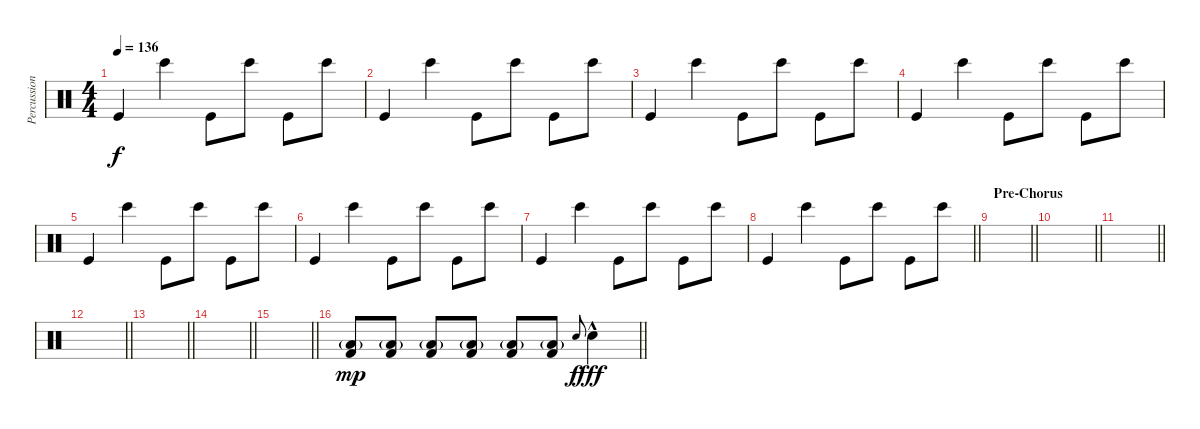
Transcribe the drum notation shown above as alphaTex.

\track ("Percussion" "Percussion") {instrument percussion}
\staff {score}
\articulation defaults
\ts (4 4)
\tempo 136
\clef neutral
\ks c "Kick (hit)".4{dy f} "Bongo High (hit)".4 "Kick (hit)".8 "Bongo High (hit)".8 "Kick (hit)".8 "Bongo High (hit)".8
|
"Kick (hit)".4 "Bongo High (hit)".4 "Kick (hit)".8 "Bongo High (hit)".8 "Kick (hit)".8 "Bongo High (hit)".8 |
"Kick (hit)".4 "Bongo High (hit)".4 "Kick (hit)".8 "Bongo High (hit)".8 "Kick (hit)".8 "Bongo High (hit)".8 |
"Kick (hit)".4 "Bongo High (hit)".4 "Kick (hit)".8 "Bongo High (hit)".8 "Kick (hit)".8 "Bongo High (hit)".8 |
"Kick (hit)".4 "Bongo High (hit)".4 "Kick (hit)".8 "Bongo High (hit)".8 "Kick (hit)".8 "Bongo High (hit)".8 |
"Kick (hit)".4 "Bongo High (hit)".4 "Kick (hit)".8 "Bongo High (hit)".8 "Kick (hit)".8 "Bongo High (hit)".8 |
"Kick (hit)".4 "Bongo High (hit)".4 "Kick (hit)".8 "Bongo High (hit)".8 "Kick (hit)".8 "Bongo High (hit)".8 |
\barLineRight lightlight "Kick (hit)".4 "Bongo High (hit)".4 "Kick (hit)".8 "Bongo High (hit)".8 "Kick (hit)".8 "Bongo High (hit)".8
|
\section ("" "Pre-Chorus")
\barLineRight lightlight
|
\barLineRight lightlight
|
\barLineRight lightlight
|
\barLineRight lightlight
|
\barLineRight lightlight
|
\barLineRight lightlight
|
\barLineRight lightlight
|
\barLineRight lightlight
("Kick (hit) 2" "Low Floor Tom (hit)"{g}).8{dy mp volume 13} ("Kick (hit) 2" "Low Floor Tom (hit)"{g}).8 ("Kick (hit) 2" "Low Floor Tom (hit)"{g}).8 ("Kick (hit) 2" "Low Floor Tom (hit)"{g}).8 ("Kick (hit) 2" "Low Floor Tom (hit)"{g}).8 ("Kick (hit) 2" "Low Floor Tom (hit)"{g}).8 "Snare (hit) 2".8{gr onbeat dy f} "Snare (hit) 2"{hac}.4{dy fff}
